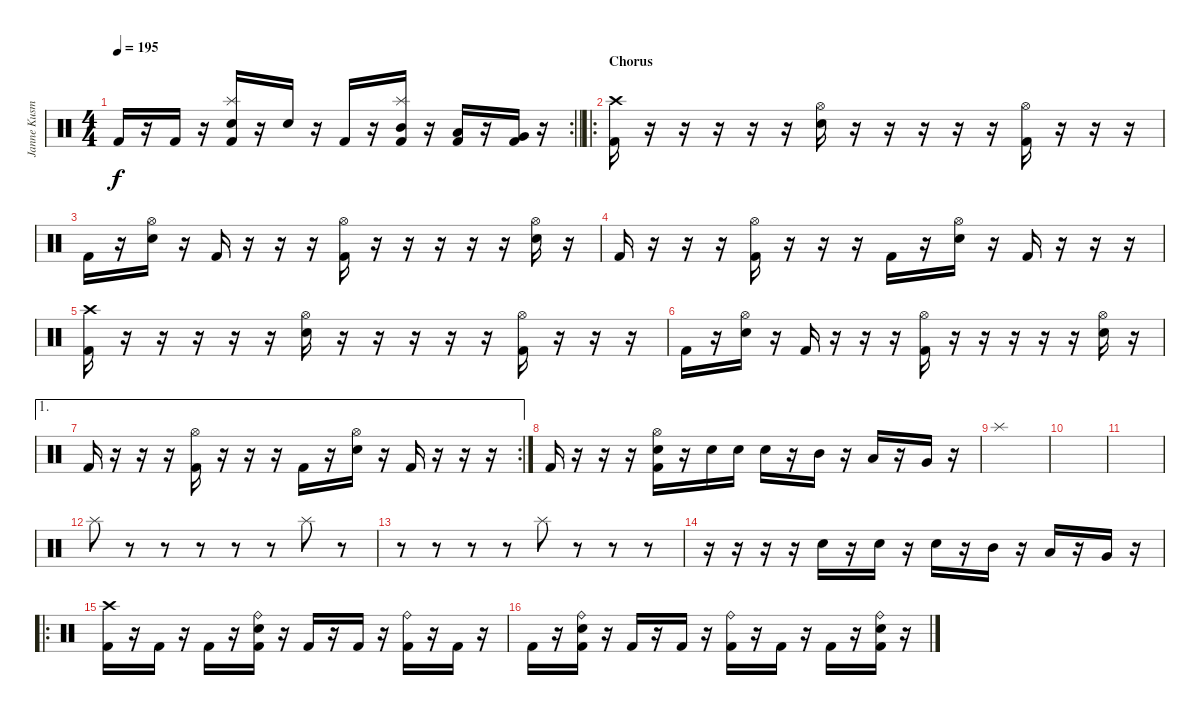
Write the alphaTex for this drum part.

\track ("Janne Kusmin" "Janne Kusm") {instrument percussion}
\staff {score}
\articulation defaults
\rc 2
\ts (4 4)
\tempo 195
\clef neutral
\barLineRight lightlight
\ks c "Kick (hit) 2".16{dy f}
r.16 "Kick (hit) 2".16 r.16 ("Splash (hit)" "Snare (hit) 2" "Kick (hit) 2").16 r.16 "Snare (hit) 2".16 r.16 "Kick (hit) 2".16 r.16 ("Splash (hit)" "Mid Tom (hit)" "Kick (hit) 2").16 r.16 ("Low Tom (hit)" "Kick (hit) 2").16 r.16 ("Very Low Tom (hit)" "Kick (hit) 2").16 r.16 |
\ro
\section ("" "Chorus")
("Crash high (hit)" "Kick (hit) 2").16 r.16 r.16 r.16 r.16 r.16 ("Hi-Hat (open)" "Snare (hit) 2").16 r.16 r.16 r.16 r.16 r.16 ("Hi-Hat (open)" "Kick (hit) 2").16 r.16 r.16 r.16 |
"Kick (hit) 2".16 r.16 ("Hi-Hat (open)" "Snare (hit) 2").16 r.16 "Kick (hit) 2".16 r.16 r.16 r.16 ("Hi-Hat (open)" "Kick (hit) 2").16 r.16 r.16 r.16 r.16 r.16 ("Hi-Hat (open)" "Snare (hit) 2").16 r.16 |
"Kick (hit) 2".16 r.16 r.16 r.16 ("Hi-Hat (open)" "Kick (hit) 2").16 r.16 r.16 r.16 "Kick (hit) 2".16 r.16 ("Hi-Hat (open)" "Snare (hit) 2").16 r.16 "Kick (hit) 2".16 r.16 r.16 r.16 |
("Crash high (hit)" "Kick (hit) 2").16 r.16 r.16 r.16 r.16 r.16 ("Hi-Hat (open)" "Snare (hit) 2").16 r.16 r.16 r.16 r.16 r.16 ("Hi-Hat (open)" "Kick (hit) 2").16 r.16 r.16 r.16 |
"Kick (hit) 2".16 r.16 ("Hi-Hat (open)" "Snare (hit) 2").16 r.16 "Kick (hit) 2".16 r.16 r.16 r.16 ("Hi-Hat (open)" "Kick (hit) 2").16 r.16 r.16 r.16 r.16 r.16 ("Hi-Hat (open)" "Snare (hit) 2").16 r.16 |
\ae 1
\rc 2 "Kick (hit) 2".16
r.16 r.16 r.16 ("Hi-Hat (open)" "Kick (hit) 2").16 r.16 r.16 r.16 "Kick (hit) 2".16 r.16 ("Hi-Hat (open)" "Snare (hit) 2").16 r.16 "Kick (hit) 2".16 r.16 r.16 r.16 |
"Kick (hit) 2".16 r.16 r.16 r.16 ("Hi-Hat (open)" "Snare (hit) 2" "Kick (hit) 2").16 r.16 "Snare (hit) 2".16 "Snare (hit) 2".16 "Snare (hit) 2".16 r.16 "Mid Tom (hit)".16 r.16 "Low Tom (hit)".16 r.16 "Very Low Tom (hit)".16 r.16 |
"Splash (hit)".1 |
|
|
"Splash (hit)".8 r.8 r.8 r.8 r.8 r.8 "Splash (hit)".8 r.8 |
r.8 r.8 r.8 r.8 "Splash (hit)".8 r.8 r.8 r.8 |
r.16 r.16 r.16 r.16 "Snare (hit) 2".16 r.16 "Snare (hit) 2".16 r.16 "Snare (hit) 2".16 r.16 "Mid Tom (hit)".16 r.16 "Low Tom (hit)".16 r.16 "Very Low Tom (hit)".16 r.16 |
\ro
("Crash high (hit)" "Kick (hit) 2").16 r.16 "Kick (hit) 2".16 r.16 "Kick (hit) 2".16 r.16 ("Ride (bell)" "Snare (hit) 2" "Kick (hit) 2").16 r.16 "Kick (hit) 2".16 r.16 "Kick (hit) 2".16 r.16 ("Ride (bell)" "Kick (hit) 2").16 r.16 "Kick (hit) 2".16 r.16 |
"Kick (hit) 2".16 r.16 ("Ride (bell)" "Snare (hit) 2" "Kick (hit) 2").16 r.16 "Kick (hit) 2".16 r.16 "Kick (hit) 2".16 r.16 ("Ride (bell)" "Kick (hit) 2").16 r.16 "Kick (hit) 2".16 r.16 "Kick (hit) 2".16 r.16 ("Ride (bell)" "Snare (hit) 2" "Kick (hit) 2").16 r.16
